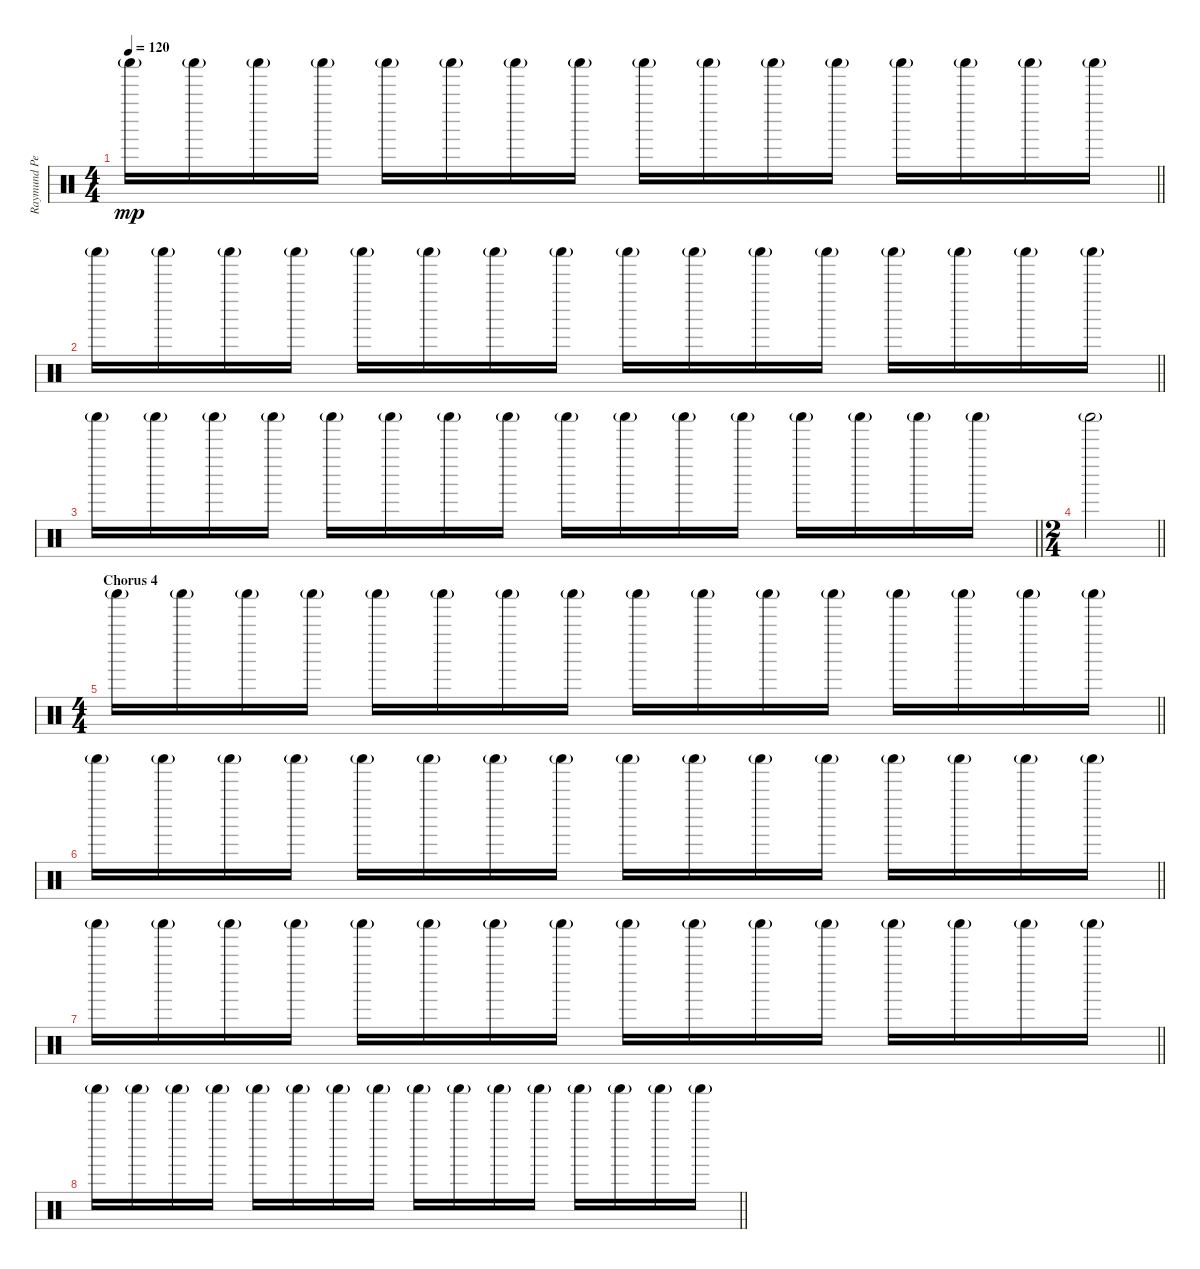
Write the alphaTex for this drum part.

\track ("Raymund Percussion" "Raymund Pe") {instrument percussion}
\staff {score}
\articulation defaults
\ts (4 4)
\tempo 120
\clef neutral
\barLineRight lightlight
\ks c "Shaker (hit)"{g}.16{dy mp} "Shaker (hit)"{g}.16 "Shaker (hit)"{g}.16 "Shaker (hit)"{g}.16 "Shaker (hit)"{g}.16 "Shaker (hit)"{g}.16 "Shaker (hit)"{g}.16 "Shaker (hit)"{g}.16 "Shaker (hit)"{g}.16 "Shaker (hit)"{g}.16 "Shaker (hit)"{g}.16 "Shaker (hit)"{g}.16 "Shaker (hit)"{g}.16 "Shaker (hit)"{g}.16 "Shaker (hit)"{g}.16 "Shaker (hit)"{g}.16
|
\barLineRight lightlight "Shaker (hit)"{g}.16 "Shaker (hit)"{g}.16 "Shaker (hit)"{g}.16 "Shaker (hit)"{g}.16 "Shaker (hit)"{g}.16 "Shaker (hit)"{g}.16 "Shaker (hit)"{g}.16 "Shaker (hit)"{g}.16 "Shaker (hit)"{g}.16 "Shaker (hit)"{g}.16 "Shaker (hit)"{g}.16 "Shaker (hit)"{g}.16 "Shaker (hit)"{g}.16 "Shaker (hit)"{g}.16 "Shaker (hit)"{g}.16 "Shaker (hit)"{g}.16
|
\barLineRight lightlight "Shaker (hit)"{g}.16 "Shaker (hit)"{g}.16 "Shaker (hit)"{g}.16 "Shaker (hit)"{g}.16 "Shaker (hit)"{g}.16 "Shaker (hit)"{g}.16 "Shaker (hit)"{g}.16 "Shaker (hit)"{g}.16 "Shaker (hit)"{g}.16 "Shaker (hit)"{g}.16 "Shaker (hit)"{g}.16 "Shaker (hit)"{g}.16 "Shaker (hit)"{g}.16 "Shaker (hit)"{g}.16 "Shaker (hit)"{g}.16 "Shaker (hit)"{g}.16
|
\ts (2 4)
\barLineRight lightlight "Shaker (hit)"{g}.2
|
\ts (4 4)
\section ("" "Chorus 4")
\barLineRight lightlight "Shaker (hit)"{g}.16 "Shaker (hit)"{g}.16 "Shaker (hit)"{g}.16 "Shaker (hit)"{g}.16 "Shaker (hit)"{g}.16 "Shaker (hit)"{g}.16 "Shaker (hit)"{g}.16 "Shaker (hit)"{g}.16 "Shaker (hit)"{g}.16 "Shaker (hit)"{g}.16 "Shaker (hit)"{g}.16 "Shaker (hit)"{g}.16 "Shaker (hit)"{g}.16 "Shaker (hit)"{g}.16 "Shaker (hit)"{g}.16 "Shaker (hit)"{g}.16
|
\barLineRight lightlight "Shaker (hit)"{g}.16 "Shaker (hit)"{g}.16 "Shaker (hit)"{g}.16 "Shaker (hit)"{g}.16 "Shaker (hit)"{g}.16 "Shaker (hit)"{g}.16 "Shaker (hit)"{g}.16 "Shaker (hit)"{g}.16 "Shaker (hit)"{g}.16 "Shaker (hit)"{g}.16 "Shaker (hit)"{g}.16 "Shaker (hit)"{g}.16 "Shaker (hit)"{g}.16 "Shaker (hit)"{g}.16 "Shaker (hit)"{g}.16 "Shaker (hit)"{g}.16
|
\barLineRight lightlight "Shaker (hit)"{g}.16 "Shaker (hit)"{g}.16 "Shaker (hit)"{g}.16 "Shaker (hit)"{g}.16 "Shaker (hit)"{g}.16 "Shaker (hit)"{g}.16 "Shaker (hit)"{g}.16 "Shaker (hit)"{g}.16 "Shaker (hit)"{g}.16 "Shaker (hit)"{g}.16 "Shaker (hit)"{g}.16 "Shaker (hit)"{g}.16 "Shaker (hit)"{g}.16 "Shaker (hit)"{g}.16 "Shaker (hit)"{g}.16 "Shaker (hit)"{g}.16
|
\barLineRight lightlight "Shaker (hit)"{g}.16 "Shaker (hit)"{g}.16 "Shaker (hit)"{g}.16 "Shaker (hit)"{g}.16 "Shaker (hit)"{g}.16 "Shaker (hit)"{g}.16 "Shaker (hit)"{g}.16 "Shaker (hit)"{g}.16 "Shaker (hit)"{g}.16 "Shaker (hit)"{g}.16 "Shaker (hit)"{g}.16 "Shaker (hit)"{g}.16 "Shaker (hit)"{g}.16 "Shaker (hit)"{g}.16 "Shaker (hit)"{g}.16 "Shaker (hit)"{g}.16
